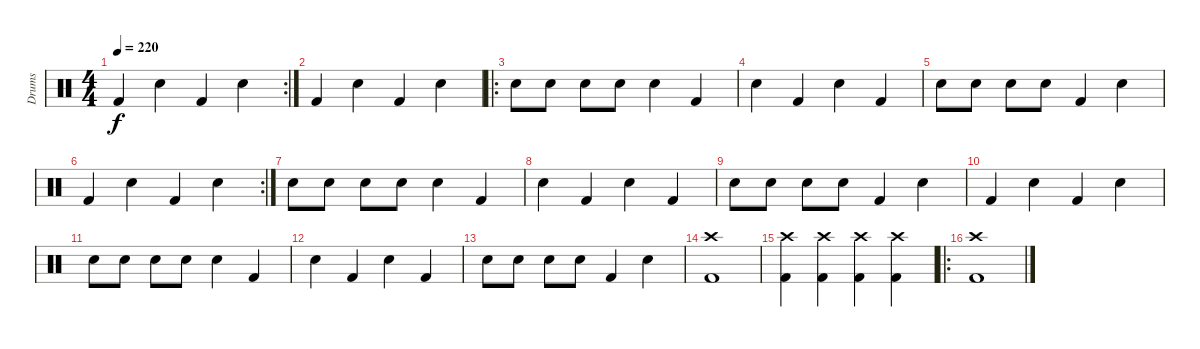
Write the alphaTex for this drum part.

\track ("Drums" "Drums") {instrument percussion}
\staff {score}
\articulation defaults
\rc 2
\ts (4 4)
\tempo 220
\clef neutral
\ks c "Kick (hit) 2".4{dy f} "Electric Snare (hit)".4 "Kick (hit) 2".4 "Electric Snare (hit)".4
|
"Kick (hit) 2".4 "Electric Snare (hit)".4 "Kick (hit) 2".4 "Electric Snare (hit)".4 |
\ro "Electric Snare (hit)".8 "Electric Snare (hit)".8 "Electric Snare (hit)".8 "Electric Snare (hit)".8 "Electric Snare (hit)".4 "Kick (hit) 2".4
|
"Electric Snare (hit)".4 "Kick (hit) 2".4 "Electric Snare (hit)".4 "Kick (hit) 2".4 |
"Electric Snare (hit)".8 "Electric Snare (hit)".8 "Electric Snare (hit)".8 "Electric Snare (hit)".8 "Kick (hit) 2".4 "Electric Snare (hit)".4 |
\rc 2 "Kick (hit) 2".4 "Electric Snare (hit)".4 "Kick (hit) 2".4 "Electric Snare (hit)".4
|
"Electric Snare (hit)".8 "Electric Snare (hit)".8 "Electric Snare (hit)".8 "Electric Snare (hit)".8 "Electric Snare (hit)".4 "Kick (hit) 2".4 |
"Electric Snare (hit)".4 "Kick (hit) 2".4 "Electric Snare (hit)".4 "Kick (hit) 2".4 |
"Electric Snare (hit)".8 "Electric Snare (hit)".8 "Electric Snare (hit)".8 "Electric Snare (hit)".8 "Kick (hit) 2".4 "Electric Snare (hit)".4 |
"Kick (hit) 2".4 "Electric Snare (hit)".4 "Kick (hit) 2".4 "Electric Snare (hit)".4 |
"Electric Snare (hit)".8 "Electric Snare (hit)".8 "Electric Snare (hit)".8 "Electric Snare (hit)".8 "Electric Snare (hit)".4 "Kick (hit) 2".4 |
"Electric Snare (hit)".4 "Kick (hit) 2".4 "Electric Snare (hit)".4 "Kick (hit) 2".4 |
"Electric Snare (hit)".8 "Electric Snare (hit)".8 "Electric Snare (hit)".8 "Electric Snare (hit)".8 "Kick (hit) 2".4 "Electric Snare (hit)".4 |
("Crash high (hit)" "Kick (hit) 2").1 |
("Crash high (hit)" "Kick (hit) 2").4 ("Kick (hit) 2" "Crash high (hit)").4 ("Crash high (hit)" "Kick (hit) 2").4 ("Kick (hit) 2" "Crash high (hit)").4 |
\ro
("Crash high (hit)" "Kick (hit) 2").1
